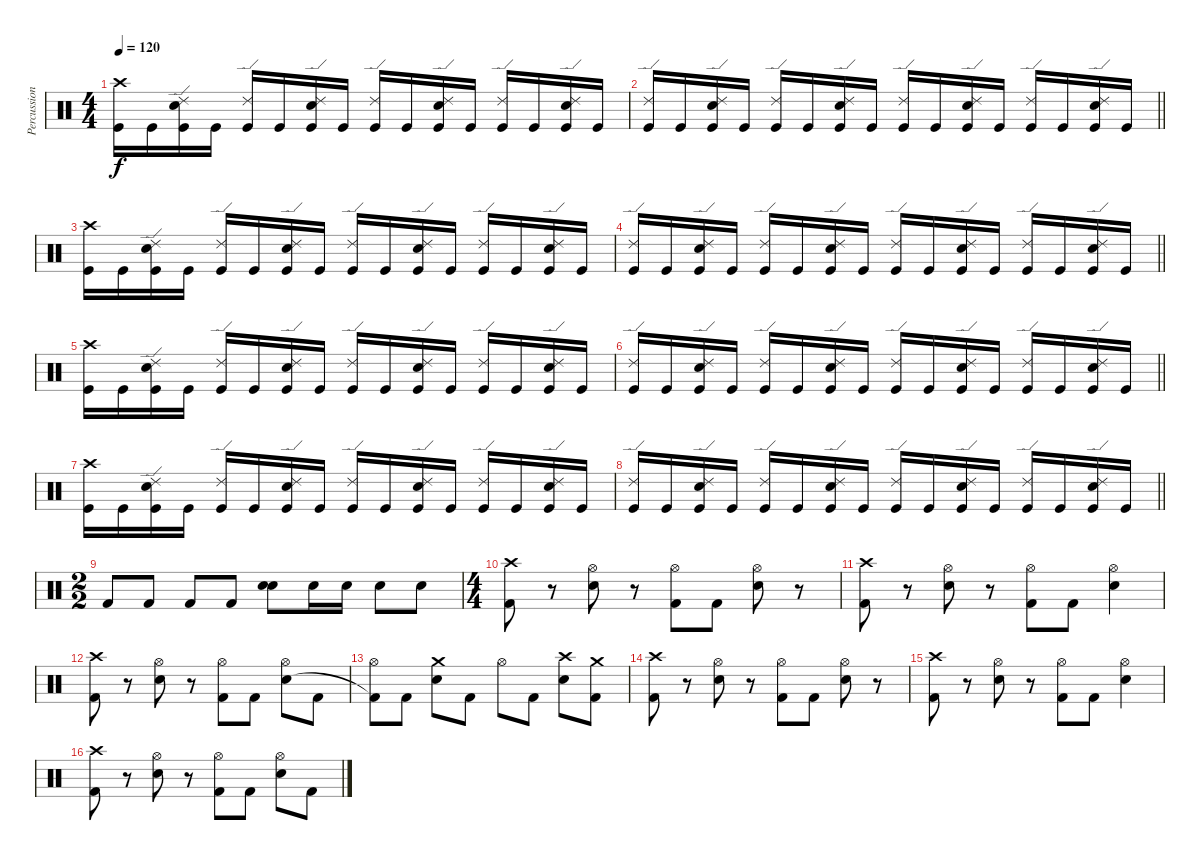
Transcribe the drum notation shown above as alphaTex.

\track ("Percussion(Satish)" "Percussion") {instrument percussion}
\staff {score}
\articulation defaults
\ts (4 4)
\tempo 120
\clef neutral
\ks c
("Crash high (hit)" "Kick (hit)").16{dy f} "Kick (hit)".16 ("Ride (edge) 2" "Electric Snare (hit)" "Kick (hit)").16 "Kick (hit)".16 ("Ride (edge) 2" "Kick (hit)").16 "Kick (hit)".16 ("Ride (edge) 2" "Electric Snare (hit)" "Kick (hit)").16 "Kick (hit)".16 ("Ride (edge) 2" "Kick (hit)").16 "Kick (hit)".16 ("Ride (edge) 2" "Electric Snare (hit)" "Kick (hit)").16 "Kick (hit)".16 ("Ride (edge) 2" "Kick (hit)").16 "Kick (hit)".16 ("Ride (edge) 2" "Electric Snare (hit)" "Kick (hit)").16 "Kick (hit)".16 |
\barLineRight lightlight
("Ride (edge) 2" "Kick (hit)").16 "Kick (hit)".16 ("Ride (edge) 2" "Electric Snare (hit)" "Kick (hit)").16 "Kick (hit)".16 ("Ride (edge) 2" "Kick (hit)").16 "Kick (hit)".16 ("Ride (edge) 2" "Electric Snare (hit)" "Kick (hit)").16 "Kick (hit)".16 ("Ride (edge) 2" "Kick (hit)").16 "Kick (hit)".16 ("Ride (edge) 2" "Electric Snare (hit)" "Kick (hit)").16 "Kick (hit)".16 ("Ride (edge) 2" "Kick (hit)").16 "Kick (hit)".16 ("Ride (edge) 2" "Electric Snare (hit)" "Kick (hit)").16 "Kick (hit)".16 |
("Crash high (hit)" "Kick (hit)").16 "Kick (hit)".16 ("Ride (edge) 2" "Electric Snare (hit)" "Kick (hit)").16 "Kick (hit)".16 ("Ride (edge) 2" "Kick (hit)").16 "Kick (hit)".16 ("Ride (edge) 2" "Electric Snare (hit)" "Kick (hit)").16 "Kick (hit)".16 ("Ride (edge) 2" "Kick (hit)").16 "Kick (hit)".16 ("Ride (edge) 2" "Electric Snare (hit)" "Kick (hit)").16 "Kick (hit)".16 ("Ride (edge) 2" "Kick (hit)").16 "Kick (hit)".16 ("Ride (edge) 2" "Electric Snare (hit)" "Kick (hit)").16 "Kick (hit)".16 |
\barLineRight lightlight
("Ride (edge) 2" "Kick (hit)").16 "Kick (hit)".16 ("Ride (edge) 2" "Electric Snare (hit)" "Kick (hit)").16 "Kick (hit)".16 ("Ride (edge) 2" "Kick (hit)").16 "Kick (hit)".16 ("Ride (edge) 2" "Electric Snare (hit)" "Kick (hit)").16 "Kick (hit)".16 ("Ride (edge) 2" "Kick (hit)").16 "Kick (hit)".16 ("Ride (edge) 2" "Electric Snare (hit)" "Kick (hit)").16 "Kick (hit)".16 ("Ride (edge) 2" "Kick (hit)").16 "Kick (hit)".16 ("Ride (edge) 2" "Electric Snare (hit)" "Kick (hit)").16 "Kick (hit)".16 |
("Crash high (hit)" "Kick (hit)").16 "Kick (hit)".16 ("Ride (edge) 2" "Electric Snare (hit)" "Kick (hit)").16 "Kick (hit)".16 ("Ride (edge) 2" "Kick (hit)").16 "Kick (hit)".16 ("Ride (edge) 2" "Electric Snare (hit)" "Kick (hit)").16 "Kick (hit)".16 ("Ride (edge) 2" "Kick (hit)").16 "Kick (hit)".16 ("Ride (edge) 2" "Electric Snare (hit)" "Kick (hit)").16 "Kick (hit)".16 ("Ride (edge) 2" "Kick (hit)").16 "Kick (hit)".16 ("Ride (edge) 2" "Electric Snare (hit)" "Kick (hit)").16 "Kick (hit)".16 |
\barLineRight lightlight
("Ride (edge) 2" "Kick (hit)").16 "Kick (hit)".16 ("Ride (edge) 2" "Electric Snare (hit)" "Kick (hit)").16 "Kick (hit)".16 ("Ride (edge) 2" "Kick (hit)").16 "Kick (hit)".16 ("Ride (edge) 2" "Electric Snare (hit)" "Kick (hit)").16 "Kick (hit)".16 ("Ride (edge) 2" "Kick (hit)").16 "Kick (hit)".16 ("Ride (edge) 2" "Electric Snare (hit)" "Kick (hit)").16 "Kick (hit)".16 ("Ride (edge) 2" "Kick (hit)").16 "Kick (hit)".16 ("Ride (edge) 2" "Electric Snare (hit)" "Kick (hit)").16 "Kick (hit)".16 |
("Crash high (hit)" "Kick (hit)").16 "Kick (hit)".16 ("Ride (edge) 2" "Electric Snare (hit)" "Kick (hit)").16 "Kick (hit)".16 ("Ride (edge) 2" "Kick (hit)").16 "Kick (hit)".16 ("Ride (edge) 2" "Electric Snare (hit)" "Kick (hit)").16 "Kick (hit)".16 ("Ride (edge) 2" "Kick (hit)").16 "Kick (hit)".16 ("Ride (edge) 2" "Electric Snare (hit)" "Kick (hit)").16 "Kick (hit)".16 ("Ride (edge) 2" "Kick (hit)").16 "Kick (hit)".16 ("Ride (edge) 2" "Electric Snare (hit)" "Kick (hit)").16 "Kick (hit)".16 |
\barLineRight lightlight
("Ride (edge) 2" "Kick (hit)").16 "Kick (hit)".16 ("Ride (edge) 2" "Electric Snare (hit)" "Kick (hit)").16 "Kick (hit)".16 ("Ride (edge) 2" "Kick (hit)").16 "Kick (hit)".16 ("Ride (edge) 2" "Electric Snare (hit)" "Kick (hit)").16 "Kick (hit)".16 ("Ride (edge) 2" "Kick (hit)").16 "Kick (hit)".16 ("Ride (edge) 2" "Electric Snare (hit)" "Kick (hit)").16 "Kick (hit)".16 ("Ride (edge) 2" "Kick (hit)").16 "Kick (hit)".16 ("Ride (edge) 2" "Electric Snare (hit)" "Kick (hit)").16 "Kick (hit)".16 |
\ts (2 2)
"Kick (hit) 2".8 "Kick (hit) 2".8 "Kick (hit) 2".8 "Kick (hit) 2".8 ("Snare (hit) 2" "Snare (hit) 2").8{bd 480} "Snare (hit) 2".16 "Snare (hit) 2".16 "Snare (hit) 2".8 "Snare (hit) 2".8 |
\ts (4 4)
("Crash high (hit)" "Kick (hit) 2").8 r.8 ("Hi-Hat (open)" "Snare (hit) 2").8 r.8 ("Hi-Hat (open)" "Kick (hit) 2").8 "Kick (hit) 2".8 ("Hi-Hat (open)" "Snare (hit) 2").8 r.8 |
("Crash high (hit)" "Kick (hit) 2").8 r.8 ("Hi-Hat (open)" "Snare (hit) 2").8 r.8 ("Hi-Hat (open)" "Kick (hit) 2").8 "Kick (hit) 2".8 ("Hi-Hat (open)" "Snare (hit) 2").4 |
("Crash high (hit)" "Kick (hit) 2").8 r.8 ("Hi-Hat (open)" "Snare (hit) 2").8 r.8 ("Hi-Hat (open)" "Kick (hit) 2").8 "Kick (hit) 2".8 ("Hi-Hat (open)" "Snare (hit) 2").8 "Kick (hit) 2".8 |
("Hi-Hat (open)" "Kick (hit) 2"{t}).8 "Kick (hit) 2".8 ("Crash medium (hit)" "Snare (hit) 2").8 "Kick (hit) 2".8 "Hi-Hat (open)".8 "Kick (hit) 2".8 ("Crash high (hit)" "Snare (hit) 2").8 ("Crash medium (hit)" "Kick (hit) 2").8 |
("Crash high (hit)" "Kick (hit) 2").8 r.8 ("Hi-Hat (open)" "Snare (hit) 2").8 r.8 ("Hi-Hat (open)" "Kick (hit) 2").8 "Kick (hit) 2".8 ("Hi-Hat (open)" "Snare (hit) 2").8 r.8 |
("Crash high (hit)" "Kick (hit) 2").8 r.8 ("Hi-Hat (open)" "Snare (hit) 2").8 r.8 ("Hi-Hat (open)" "Kick (hit) 2").8 "Kick (hit) 2".8 ("Hi-Hat (open)" "Snare (hit) 2").4 |
("Crash high (hit)" "Kick (hit) 2").8 r.8 ("Hi-Hat (open)" "Snare (hit) 2").8 r.8 ("Hi-Hat (open)" "Kick (hit) 2").8 "Kick (hit) 2".8 ("Hi-Hat (open)" "Snare (hit) 2").8 "Kick (hit) 2".8
